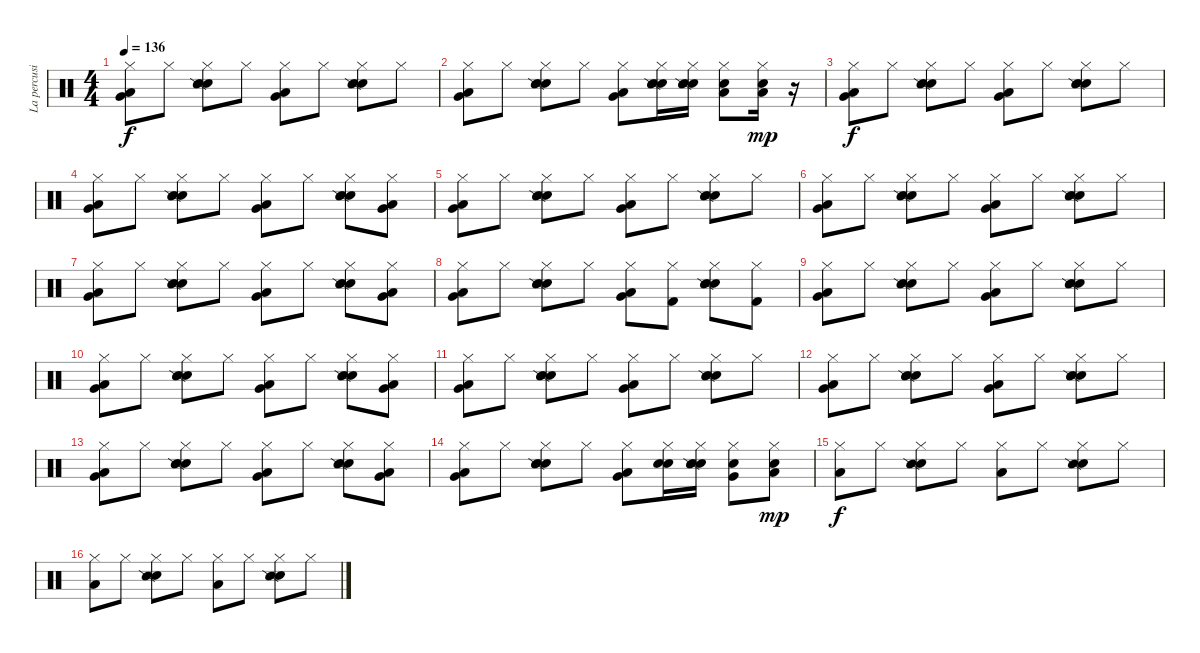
\track ("La percusión" "La percusi") {instrument percussion}
\staff {score}
\articulation defaults
\ts (4 4)
\tempo 136
\clef neutral
\ks c
("Hi-Hat (closed)" "Low Floor Tom (hit)" "Very Low Tom (hit)").8{dy f} "Hi-Hat (closed)".8 ("Hi-Hat (closed)" "Snare (hit) 2" "Snare (hit) 2" "Snare (side stick) 2").8 "Hi-Hat (closed)".8 ("Hi-Hat (closed)" "Low Floor Tom (hit)" "Very Low Tom (hit)").8 "Hi-Hat (closed)".8 ("Hi-Hat (closed)" "Snare (hit) 2" "Snare (hit) 2" "Snare (side stick) 2").8 "Hi-Hat (closed)".8 |
("Hi-Hat (closed)" "Low Floor Tom (hit)" "Very Low Tom (hit)").8 "Hi-Hat (closed)".8 ("Hi-Hat (closed)" "Snare (hit) 2" "Snare (hit) 2" "Snare (side stick) 2").8 "Hi-Hat (closed)".8 ("Hi-Hat (closed)" "Low Floor Tom (hit)" "Very Low Tom (hit)").8 ("Hi-Hat (closed)" "Snare (hit) 2" "Snare (hit) 2" "Snare (side stick) 2").16 ("Hi-Hat (closed)" "Snare (hit) 2" "Snare (hit) 2" "Snare (side stick) 2").16 ("Hi-Hat (closed)" "Low Tom (hit)" "Snare (hit) 2").8 ("Hi-Hat (closed)" "Low Tom (hit)" "Snare (hit) 2").16{dy mp} r.16 |
("Hi-Hat (closed)" "Low Floor Tom (hit)" "Very Low Tom (hit)").8{dy f} "Hi-Hat (closed)".8 ("Hi-Hat (closed)" "Snare (hit) 2" "Snare (hit) 2" "Snare (side stick) 2").8 "Hi-Hat (closed)".8 ("Hi-Hat (closed)" "Low Floor Tom (hit)" "Very Low Tom (hit)").8 "Hi-Hat (closed)".8 ("Hi-Hat (closed)" "Snare (hit) 2" "Snare (hit) 2" "Snare (side stick) 2").8 "Hi-Hat (closed)".8 |
("Hi-Hat (closed)" "Low Floor Tom (hit)" "Very Low Tom (hit)").8 "Hi-Hat (closed)".8 ("Hi-Hat (closed)" "Snare (hit) 2" "Snare (hit) 2" "Snare (side stick) 2").8 "Hi-Hat (closed)".8 ("Hi-Hat (closed)" "Low Floor Tom (hit)" "Very Low Tom (hit)").8 "Hi-Hat (closed)".8 ("Hi-Hat (closed)" "Snare (hit) 2" "Snare (hit) 2" "Snare (side stick) 2").8 ("Hi-Hat (closed)" "Low Floor Tom (hit)" "Very Low Tom (hit)").8 |
("Hi-Hat (closed)" "Low Floor Tom (hit)" "Very Low Tom (hit)").8 "Hi-Hat (closed)".8 ("Hi-Hat (closed)" "Snare (hit) 2" "Snare (hit) 2" "Snare (side stick) 2").8 "Hi-Hat (closed)".8 ("Hi-Hat (closed)" "Low Floor Tom (hit)" "Very Low Tom (hit)").8 "Hi-Hat (closed)".8 ("Hi-Hat (closed)" "Snare (hit) 2" "Snare (hit) 2" "Snare (side stick) 2").8 "Hi-Hat (closed)".8 |
("Hi-Hat (closed)" "Low Floor Tom (hit)" "Very Low Tom (hit)").8 "Hi-Hat (closed)".8 ("Hi-Hat (closed)" "Snare (hit) 2" "Snare (hit) 2" "Snare (side stick) 2").8 "Hi-Hat (closed)".8 ("Hi-Hat (closed)" "Low Floor Tom (hit)" "Very Low Tom (hit)").8 "Hi-Hat (closed)".8 ("Hi-Hat (closed)" "Snare (hit) 2" "Snare (hit) 2" "Snare (side stick) 2").8 "Hi-Hat (closed)".8 |
("Hi-Hat (closed)" "Low Floor Tom (hit)" "Very Low Tom (hit)").8 "Hi-Hat (closed)".8 ("Hi-Hat (closed)" "Snare (hit) 2" "Snare (hit) 2" "Snare (side stick) 2").8 "Hi-Hat (closed)".8 ("Hi-Hat (closed)" "Low Floor Tom (hit)" "Very Low Tom (hit)").8 "Hi-Hat (closed)".8 ("Hi-Hat (closed)" "Snare (hit) 2" "Snare (hit) 2" "Snare (side stick) 2").8 ("Hi-Hat (closed)" "Low Floor Tom (hit)" "Very Low Tom (hit)").8 |
("Hi-Hat (closed)" "Low Floor Tom (hit)" "Very Low Tom (hit)").8 "Hi-Hat (closed)".8 ("Hi-Hat (closed)" "Snare (hit) 2" "Snare (hit) 2" "Snare (side stick) 2").8 "Hi-Hat (closed)".8 ("Hi-Hat (closed)" "Low Floor Tom (hit)" "Very Low Tom (hit)").8 ("Hi-Hat (closed)" "Kick (hit) 2").8 ("Hi-Hat (closed)" "Snare (hit) 2" "Snare (hit) 2" "Snare (side stick) 2").8 ("Hi-Hat (closed)" "Kick (hit) 2").8 |
("Hi-Hat (closed)" "Low Floor Tom (hit)" "Very Low Tom (hit)").8 "Hi-Hat (closed)".8 ("Hi-Hat (closed)" "Snare (hit) 2" "Snare (hit) 2" "Snare (side stick) 2").8 "Hi-Hat (closed)".8 ("Hi-Hat (closed)" "Low Floor Tom (hit)" "Very Low Tom (hit)").8 "Hi-Hat (closed)".8 ("Hi-Hat (closed)" "Snare (hit) 2" "Snare (hit) 2" "Snare (side stick) 2").8 "Hi-Hat (closed)".8 |
("Hi-Hat (closed)" "Low Floor Tom (hit)" "Very Low Tom (hit)").8 "Hi-Hat (closed)".8 ("Hi-Hat (closed)" "Snare (hit) 2" "Snare (hit) 2" "Snare (side stick) 2").8 "Hi-Hat (closed)".8 ("Hi-Hat (closed)" "Low Floor Tom (hit)" "Very Low Tom (hit)").8 "Hi-Hat (closed)".8 ("Hi-Hat (closed)" "Snare (hit) 2" "Snare (hit) 2" "Snare (side stick) 2").8 ("Hi-Hat (closed)" "Low Floor Tom (hit)" "Very Low Tom (hit)").8 |
("Hi-Hat (closed)" "Low Floor Tom (hit)" "Very Low Tom (hit)").8 "Hi-Hat (closed)".8 ("Hi-Hat (closed)" "Snare (hit) 2" "Snare (hit) 2" "Snare (side stick) 2").8 "Hi-Hat (closed)".8 ("Hi-Hat (closed)" "Low Floor Tom (hit)" "Very Low Tom (hit)").8 "Hi-Hat (closed)".8 ("Hi-Hat (closed)" "Snare (hit) 2" "Snare (hit) 2" "Snare (side stick) 2").8 "Hi-Hat (closed)".8 |
("Hi-Hat (closed)" "Low Floor Tom (hit)" "Very Low Tom (hit)").8 "Hi-Hat (closed)".8 ("Hi-Hat (closed)" "Snare (hit) 2" "Snare (hit) 2" "Snare (side stick) 2").8 "Hi-Hat (closed)".8 ("Hi-Hat (closed)" "Low Floor Tom (hit)" "Very Low Tom (hit)").8 "Hi-Hat (closed)".8 ("Hi-Hat (closed)" "Snare (hit) 2" "Snare (hit) 2" "Snare (side stick) 2").8 "Hi-Hat (closed)".8 |
("Hi-Hat (closed)" "Low Floor Tom (hit)" "Very Low Tom (hit)").8 "Hi-Hat (closed)".8 ("Hi-Hat (closed)" "Snare (hit) 2" "Snare (hit) 2" "Snare (side stick) 2").8 "Hi-Hat (closed)".8 ("Hi-Hat (closed)" "Low Floor Tom (hit)" "Very Low Tom (hit)").8 "Hi-Hat (closed)".8 ("Hi-Hat (closed)" "Snare (hit) 2" "Snare (hit) 2" "Snare (side stick) 2").8 ("Hi-Hat (closed)" "Low Floor Tom (hit)" "Very Low Tom (hit)").8 |
("Hi-Hat (closed)" "Low Floor Tom (hit)" "Very Low Tom (hit)").8 "Hi-Hat (closed)".8 ("Hi-Hat (closed)" "Snare (hit) 2" "Snare (hit) 2" "Snare (side stick) 2").8 "Hi-Hat (closed)".8 ("Hi-Hat (closed)" "Low Floor Tom (hit)" "Very Low Tom (hit)").8 ("Hi-Hat (closed)" "Snare (hit) 2" "Snare (hit) 2").16 ("Hi-Hat (closed)" "Snare (hit) 2" "Snare (hit) 2" "Snare (side stick) 2").16 ("Hi-Hat (closed)" "Very Low Tom (hit)" "Snare (hit) 2").8 ("Hi-Hat (closed)" "Low Floor Tom (hit)" "Snare (hit) 2").8{dy mp} |
("Hi-Hat (closed)" "Low Floor Tom (hit)").8{dy f} "Hi-Hat (closed)".8 ("Hi-Hat (closed)" "Snare (hit) 2" "Snare (side stick) 2").8 "Hi-Hat (closed)".8 ("Hi-Hat (closed)" "Low Floor Tom (hit)").8 "Hi-Hat (closed)".8 ("Hi-Hat (closed)" "Snare (hit) 2" "Snare (side stick) 2").8 "Hi-Hat (closed)".8 |
("Hi-Hat (closed)" "Low Floor Tom (hit)").8 "Hi-Hat (closed)".8 ("Hi-Hat (closed)" "Snare (hit) 2" "Snare (side stick) 2").8 "Hi-Hat (closed)".8 ("Hi-Hat (closed)" "Low Floor Tom (hit)").8 "Hi-Hat (closed)".8 ("Hi-Hat (closed)" "Snare (hit) 2" "Snare (side stick) 2").8 "Hi-Hat (closed)".8
